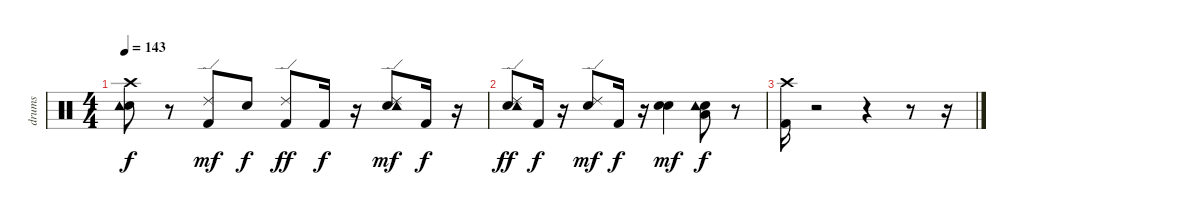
\track ("drums" "drums") {instrument percussion}
\staff {score}
\articulation defaults
\ts (4 4)
\tempo 143
\clef neutral
\ks c
("Snare (hit) 2" "Crash high (hit)" "Tambourine (hit)").8{dy f} r.8 ("Kick (hit) 2" "Ride (edge) 2").8{dy mf} "Snare (hit) 2".8{dy f} ("Ride (edge) 2" "Kick (hit) 2").8{dy ff} "Kick (hit) 2".16{dy f} r.16 ("Ride (edge) 2" "Snare (hit) 2" "Tambourine (hit)").8{dy mf} "Kick (hit) 2".16{dy f} r.16 |
("Ride (edge) 2" "Snare (hit) 2" "Tambourine (hit)").8{dy ff} "Kick (hit) 2".16{dy f} r.16 ("Snare (hit) 2" "Ride (edge) 2").8{dy mf} "Kick (hit) 2".16{dy f} r.16 ("Snare (hit) 2" "Snare (hit) 2").4{dy mf} ("Low Floor Tom (hit)" "Snare (hit) 2" "Tambourine (hit)").8{dy f} r.8 |
("Crash high (hit)" "Kick (hit) 2").16 r.2 r.4 r.8 r.16
